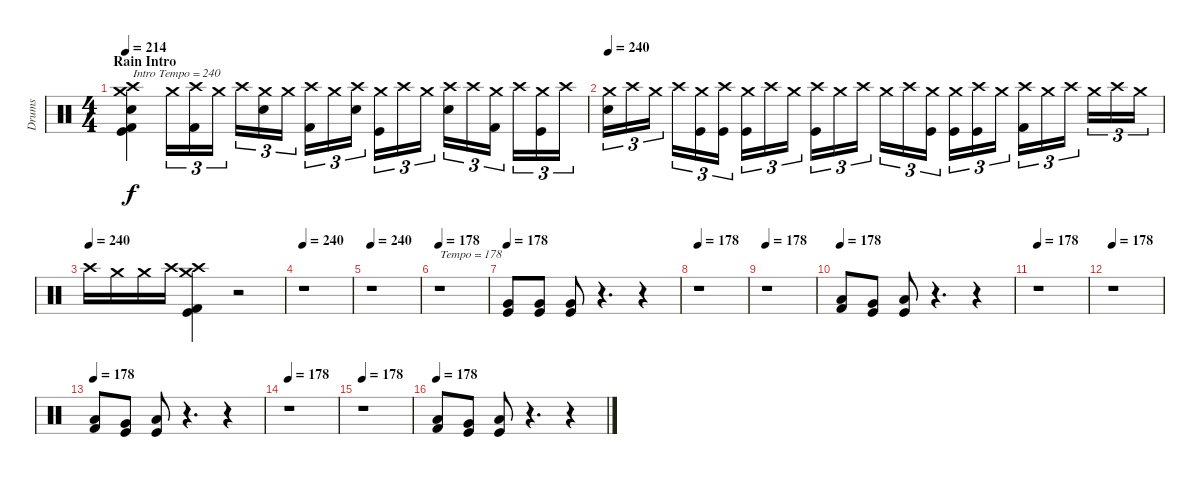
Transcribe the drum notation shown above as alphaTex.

\track ("Drums" "Drums") {instrument percussion}
\staff {score}
\articulation defaults
\ts (4 4)
\section ("" "Rain Intro")
\tempo 214
\tempo 240
\tempo 214
\clef neutral
\ks c
("Crash high (hit)" "Crash medium (hit)" "Snare (hit) 2" "Kick (hit)" "Kick (hit) 2").4{txt "Intro Tempo = 240" dy f} "Crash medium (hit)".16{tu (3 2)} ("Crash high (hit)" "Kick (hit) 2").16{tu (3 2)} "Crash medium (hit)".16{tu (3 2)} "Crash high (hit)".16{tu (3 2)} ("Crash medium (hit)" "Snare (hit) 2").16{tu (3 2)} "Crash medium (hit)".16{tu (3 2)} ("Crash high (hit)" "Kick (hit) 2").16{tu (3 2)} "Crash medium (hit)".16{tu (3 2)} ("Crash high (hit)" "Snare (hit) 2").16{tu (3 2)} ("Crash medium (hit)" "Kick (hit)").16{tu (3 2)} "Crash high (hit)".16{tu (3 2)} "Crash medium (hit)".16{tu (3 2)} ("Crash high (hit)" "Snare (hit) 2").16{tu (3 2)} "Crash high (hit)".16{tu (3 2)} ("Crash medium (hit)" "Kick (hit) 2").16{tu (3 2)} "Crash high (hit)".16{tu (3 2)} ("Crash medium (hit)" "Kick (hit)").16{tu (3 2)} "Crash high (hit)".16{tu (3 2)} |
\tempo 240
("Crash medium (hit)" "Snare (hit) 2").16{tu (3 2)} "Crash high (hit)".16{tu (3 2)} "Crash medium (hit)".16{tu (3 2)} "Crash high (hit)".16{tu (3 2)} ("Crash medium (hit)" "Kick (hit)").16{tu (3 2)} ("Crash high (hit)" "Kick (hit)").16{tu (3 2)} ("Crash medium (hit)" "Kick (hit)").16{tu (3 2)} "Crash high (hit)".16{tu (3 2)} "Crash medium (hit)".16{tu (3 2)} ("Crash high (hit)" "Kick (hit)").16{tu (3 2)} "Crash medium (hit)".16{tu (3 2)} "Crash high (hit)".16{tu (3 2)} "Crash medium (hit)".16{tu (3 2)} "Crash high (hit)".16{tu (3 2)} ("Crash medium (hit)" "Kick (hit)").16{tu (3 2)} ("Crash medium (hit)" "Kick (hit)").16{tu (3 2)} ("Crash high (hit)" "Kick (hit)").16{tu (3 2)} "Crash medium (hit)".16{tu (3 2)} ("Crash high (hit)" "Kick (hit) 2").16{tu (3 2)} "Crash medium (hit)".16{tu (3 2)} "Crash high (hit)".16{tu (3 2)} "Crash medium (hit)".16{tu (3 2)} "Crash high (hit)".16{tu (3 2)} "Crash medium (hit)".16{tu (3 2)} |
\tempo (240)
"Crash high (hit)".16 "Crash medium (hit)".16 "Crash medium (hit)".16 "Crash high (hit)".16 ("Crash high (hit)" "Crash medium (hit)" "Kick (hit)" "Kick (hit) 2").4 r.2 |
\tempo 240
r.1 |
\tempo 240
r.1 |
\tempo 178
r.1{txt "Tempo = 178"} |
\tempo 178
("Very Low Tom (hit)" "Kick (hit)").8 ("Very Low Tom (hit)" "Kick (hit)").8 ("Very Low Tom (hit)" "Kick (hit)").8 r.4{d} r.4 |
\tempo 178
r.1 |
\tempo 178
r.1 |
\tempo 178
("Low Floor Tom (hit)" "Kick (hit) 2").8 ("Very Low Tom (hit)" "Kick (hit)").8 ("Low Floor Tom (hit)" "Kick (hit)").8 r.4{d} r.4 |
\tempo 178
r.1 |
\tempo 178
r.1 |
\tempo 178
("Low Floor Tom (hit)" "Kick (hit) 2").8 ("Very Low Tom (hit)" "Kick (hit)").8 ("Low Floor Tom (hit)" "Kick (hit)").8 r.4{d} r.4 |
\tempo 178
r.1 |
\tempo 178
r.1 |
\tempo 178
("Low Floor Tom (hit)" "Kick (hit) 2").8 ("Very Low Tom (hit)" "Kick (hit)").8 ("Low Floor Tom (hit)" "Kick (hit)").8 r.4{d} r.4
